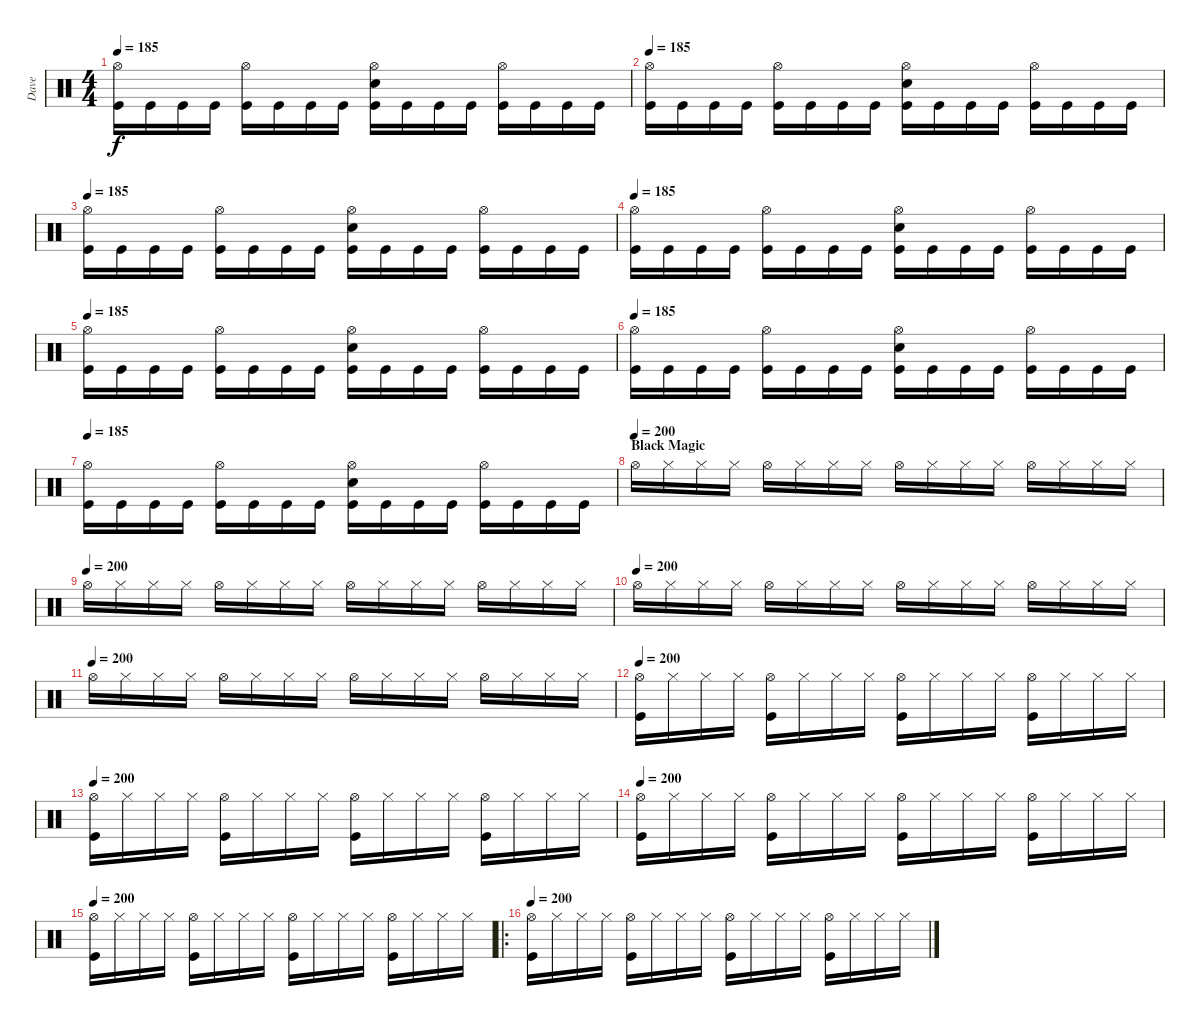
\track ("Dave" "Dave") {instrument percussion}
\staff {score}
\articulation defaults
\ts (4 4)
\tempo 185
\clef neutral
\ks c
("Hi-Hat (open)" "Kick (hit)").16{dy f} "Kick (hit)".16 "Kick (hit)".16 "Kick (hit)".16 ("Hi-Hat (open)" "Kick (hit)").16 "Kick (hit)".16 "Kick (hit)".16 "Kick (hit)".16 ("Hi-Hat (open)" "Snare (hit) 2" "Kick (hit)").16 "Kick (hit)".16 "Kick (hit)".16 "Kick (hit)".16 ("Hi-Hat (open)" "Kick (hit)").16 "Kick (hit)".16 "Kick (hit)".16 "Kick (hit)".16 |
\tempo 185
("Hi-Hat (open)" "Kick (hit)").16 "Kick (hit)".16 "Kick (hit)".16 "Kick (hit)".16 ("Hi-Hat (open)" "Kick (hit)").16 "Kick (hit)".16 "Kick (hit)".16 "Kick (hit)".16 ("Hi-Hat (open)" "Snare (hit) 2" "Kick (hit)").16 "Kick (hit)".16 "Kick (hit)".16 "Kick (hit)".16 ("Hi-Hat (open)" "Kick (hit)").16 "Kick (hit)".16 "Kick (hit)".16 "Kick (hit)".16 |
\tempo 185
("Hi-Hat (open)" "Kick (hit)").16 "Kick (hit)".16 "Kick (hit)".16 "Kick (hit)".16 ("Hi-Hat (open)" "Kick (hit)").16 "Kick (hit)".16 "Kick (hit)".16 "Kick (hit)".16 ("Hi-Hat (open)" "Snare (hit) 2" "Kick (hit)").16 "Kick (hit)".16 "Kick (hit)".16 "Kick (hit)".16 ("Hi-Hat (open)" "Kick (hit)").16 "Kick (hit)".16 "Kick (hit)".16 "Kick (hit)".16 |
\tempo 185
("Hi-Hat (open)" "Kick (hit)").16 "Kick (hit)".16 "Kick (hit)".16 "Kick (hit)".16 ("Hi-Hat (open)" "Kick (hit)").16 "Kick (hit)".16 "Kick (hit)".16 "Kick (hit)".16 ("Hi-Hat (open)" "Snare (hit) 2" "Kick (hit)").16 "Kick (hit)".16 "Kick (hit)".16 "Kick (hit)".16 ("Hi-Hat (open)" "Kick (hit)").16 "Kick (hit)".16 "Kick (hit)".16 "Kick (hit)".16 |
\tempo 185
("Hi-Hat (open)" "Kick (hit)").16 "Kick (hit)".16 "Kick (hit)".16 "Kick (hit)".16 ("Hi-Hat (open)" "Kick (hit)").16 "Kick (hit)".16 "Kick (hit)".16 "Kick (hit)".16 ("Hi-Hat (open)" "Snare (hit) 2" "Kick (hit)").16 "Kick (hit)".16 "Kick (hit)".16 "Kick (hit)".16 ("Hi-Hat (open)" "Kick (hit)").16 "Kick (hit)".16 "Kick (hit)".16 "Kick (hit)".16 |
\tempo 185
("Hi-Hat (open)" "Kick (hit)").16 "Kick (hit)".16 "Kick (hit)".16 "Kick (hit)".16 ("Hi-Hat (open)" "Kick (hit)").16 "Kick (hit)".16 "Kick (hit)".16 "Kick (hit)".16 ("Hi-Hat (open)" "Snare (hit) 2" "Kick (hit)").16 "Kick (hit)".16 "Kick (hit)".16 "Kick (hit)".16 ("Hi-Hat (open)" "Kick (hit)").16 "Kick (hit)".16 "Kick (hit)".16 "Kick (hit)".16 |
\tempo 185
("Hi-Hat (open)" "Kick (hit)").16 "Kick (hit)".16 "Kick (hit)".16 "Kick (hit)".16 ("Hi-Hat (open)" "Kick (hit)").16 "Kick (hit)".16 "Kick (hit)".16 "Kick (hit)".16 ("Hi-Hat (open)" "Snare (hit) 2" "Kick (hit)").16 "Kick (hit)".16 "Kick (hit)".16 "Kick (hit)".16 ("Hi-Hat (open)" "Kick (hit)").16 "Kick (hit)".16 "Kick (hit)".16 "Kick (hit)".16 |
\section ("" "Black Magic")
\tempo (200)
"Hi-Hat (open)".16 "Hi-Hat (closed)".16 "Hi-Hat (closed)".16 "Hi-Hat (closed)".16 "Hi-Hat (open)".16 "Hi-Hat (closed)".16 "Hi-Hat (closed)".16 "Hi-Hat (closed)".16 "Hi-Hat (open)".16 "Hi-Hat (closed)".16 "Hi-Hat (closed)".16 "Hi-Hat (closed)".16 "Hi-Hat (open)".16 "Hi-Hat (closed)".16 "Hi-Hat (closed)".16 "Hi-Hat (closed)".16 |
\tempo (200)
"Hi-Hat (open)".16 "Hi-Hat (closed)".16 "Hi-Hat (closed)".16 "Hi-Hat (closed)".16 "Hi-Hat (open)".16 "Hi-Hat (closed)".16 "Hi-Hat (closed)".16 "Hi-Hat (closed)".16 "Hi-Hat (open)".16 "Hi-Hat (closed)".16 "Hi-Hat (closed)".16 "Hi-Hat (closed)".16 "Hi-Hat (open)".16 "Hi-Hat (closed)".16 "Hi-Hat (closed)".16 "Hi-Hat (closed)".16 |
\tempo (200)
"Hi-Hat (open)".16 "Hi-Hat (closed)".16 "Hi-Hat (closed)".16 "Hi-Hat (closed)".16 "Hi-Hat (open)".16 "Hi-Hat (closed)".16 "Hi-Hat (closed)".16 "Hi-Hat (closed)".16 "Hi-Hat (open)".16 "Hi-Hat (closed)".16 "Hi-Hat (closed)".16 "Hi-Hat (closed)".16 "Hi-Hat (open)".16 "Hi-Hat (closed)".16 "Hi-Hat (closed)".16 "Hi-Hat (closed)".16 |
\tempo (200)
"Hi-Hat (open)".16 "Hi-Hat (closed)".16 "Hi-Hat (closed)".16 "Hi-Hat (closed)".16 "Hi-Hat (open)".16 "Hi-Hat (closed)".16 "Hi-Hat (closed)".16 "Hi-Hat (closed)".16 "Hi-Hat (open)".16 "Hi-Hat (closed)".16 "Hi-Hat (closed)".16 "Hi-Hat (closed)".16 "Hi-Hat (open)".16 "Hi-Hat (closed)".16 "Hi-Hat (closed)".16 "Hi-Hat (closed)".16 |
\tempo 200
("Hi-Hat (open)" "Kick (hit)").16 "Hi-Hat (closed)".16 "Hi-Hat (closed)".16 "Hi-Hat (closed)".16 ("Hi-Hat (open)" "Kick (hit)").16 "Hi-Hat (closed)".16 "Hi-Hat (closed)".16 "Hi-Hat (closed)".16 ("Hi-Hat (open)" "Kick (hit)").16 "Hi-Hat (closed)".16 "Hi-Hat (closed)".16 "Hi-Hat (closed)".16 ("Hi-Hat (open)" "Kick (hit)").16 "Hi-Hat (closed)".16 "Hi-Hat (closed)".16 "Hi-Hat (closed)".16 |
\tempo 200
("Hi-Hat (open)" "Kick (hit)").16 "Hi-Hat (closed)".16 "Hi-Hat (closed)".16 "Hi-Hat (closed)".16 ("Hi-Hat (open)" "Kick (hit)").16 "Hi-Hat (closed)".16 "Hi-Hat (closed)".16 "Hi-Hat (closed)".16 ("Hi-Hat (open)" "Kick (hit)").16 "Hi-Hat (closed)".16 "Hi-Hat (closed)".16 "Hi-Hat (closed)".16 ("Hi-Hat (open)" "Kick (hit)").16 "Hi-Hat (closed)".16 "Hi-Hat (closed)".16 "Hi-Hat (closed)".16 |
\tempo 200
("Hi-Hat (open)" "Kick (hit)").16 "Hi-Hat (closed)".16 "Hi-Hat (closed)".16 "Hi-Hat (closed)".16 ("Hi-Hat (open)" "Kick (hit)").16 "Hi-Hat (closed)".16 "Hi-Hat (closed)".16 "Hi-Hat (closed)".16 ("Hi-Hat (open)" "Kick (hit)").16 "Hi-Hat (closed)".16 "Hi-Hat (closed)".16 "Hi-Hat (closed)".16 ("Hi-Hat (open)" "Kick (hit)").16 "Hi-Hat (closed)".16 "Hi-Hat (closed)".16 "Hi-Hat (closed)".16 |
\tempo 200
("Hi-Hat (open)" "Kick (hit)").16 "Hi-Hat (closed)".16 "Hi-Hat (closed)".16 "Hi-Hat (closed)".16 ("Hi-Hat (open)" "Kick (hit)").16 "Hi-Hat (closed)".16 "Hi-Hat (closed)".16 "Hi-Hat (closed)".16 ("Hi-Hat (open)" "Kick (hit)").16 "Hi-Hat (closed)".16 "Hi-Hat (closed)".16 "Hi-Hat (closed)".16 ("Hi-Hat (open)" "Kick (hit)").16 "Hi-Hat (closed)".16 "Hi-Hat (closed)".16 "Hi-Hat (closed)".16 |
\ro
\tempo 200
("Hi-Hat (open)" "Kick (hit)").16 "Hi-Hat (closed)".16 "Hi-Hat (closed)".16 "Hi-Hat (closed)".16 ("Hi-Hat (open)" "Kick (hit)").16 "Hi-Hat (closed)".16 "Hi-Hat (closed)".16 "Hi-Hat (closed)".16 ("Hi-Hat (open)" "Kick (hit)").16 "Hi-Hat (closed)".16 "Hi-Hat (closed)".16 "Hi-Hat (closed)".16 ("Hi-Hat (open)" "Kick (hit)").16 "Hi-Hat (closed)".16 "Hi-Hat (closed)".16 "Hi-Hat (closed)".16
